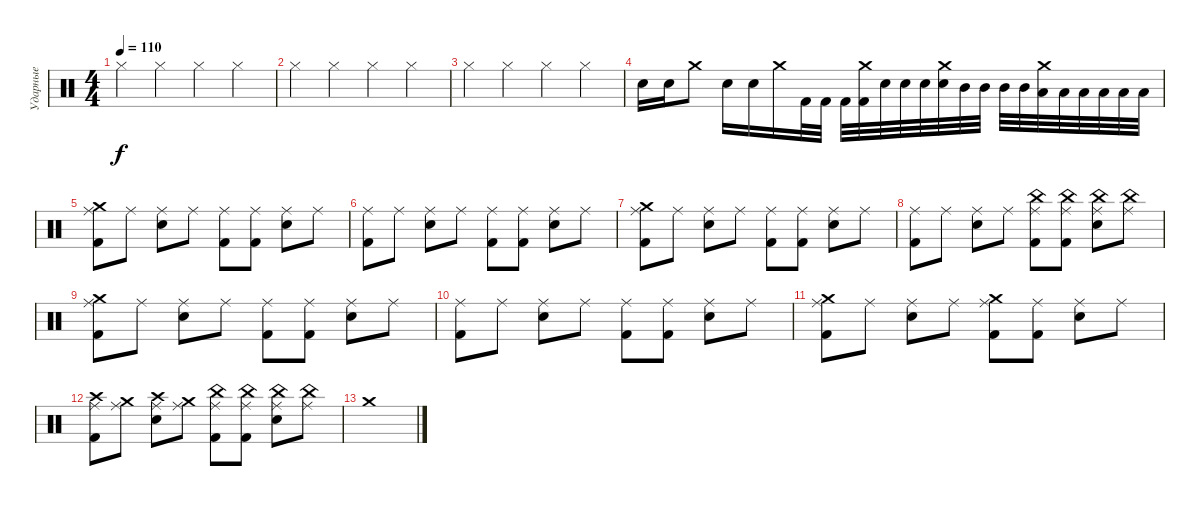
\track ("Ударные" "Ударные") {instrument percussion}
\staff {score}
\articulation defaults
\ts (4 4)
\tempo 110
\clef neutral
\ks c "Hi-Hat (closed)".4{dy f} "Hi-Hat (closed)".4 "Hi-Hat (closed)".4 "Hi-Hat (closed)".4
|
"Hi-Hat (closed)".4 "Hi-Hat (closed)".4 "Hi-Hat (closed)".4 "Hi-Hat (closed)".4 |
"Hi-Hat (closed)".4 "Hi-Hat (closed)".4 "Hi-Hat (closed)".4 "Hi-Hat (closed)".4 |
"Electric Snare (hit)".16 "Electric Snare (hit)".16 "Crash medium (hit)".8 "Electric Snare (hit)".16 "Electric Snare (hit)".16 "Crash medium (hit)".16 "Kick (hit) 2".32 "Kick (hit) 2".32 "Kick (hit) 2".32 ("Crash medium (hit)" "Kick (hit) 2").32 "Electric Snare (hit)".32 "Electric Snare (hit)".32 "Electric Snare (hit)".32 ("Crash medium (hit)" "Electric Snare (hit)").32 "Mid Tom (hit)".32 "Mid Tom (hit)".32 "Mid Tom (hit)".32 "Mid Tom (hit)".32 ("Crash medium (hit)" "Low Tom (hit)").32 "Low Tom (hit)".32 "Low Tom (hit)".32 "Low Tom (hit)".32 "Low Floor Tom (hit)".32 "Low Floor Tom (hit)".32 |
("Ride (middle)" "Crash medium (hit)" "Kick (hit) 2").8 "Ride (middle)".8 ("Ride (middle)" "Electric Snare (hit)").8 "Ride (middle)".8 ("Ride (middle)" "Kick (hit) 2").8 ("Ride (middle)" "Kick (hit) 2").8 ("Ride (middle)" "Electric Snare (hit)").8 "Ride (middle)".8 |
("Ride (middle)" "Kick (hit) 2").8 "Ride (middle)".8 ("Ride (middle)" "Electric Snare (hit)").8 "Ride (middle)".8 ("Ride (middle)" "Kick (hit) 2").8 ("Ride (middle)" "Kick (hit) 2").8 ("Ride (middle)" "Electric Snare (hit)").8 "Ride (middle)".8 |
("Ride (middle)" "Crash medium (hit)" "Kick (hit) 2").8 "Ride (middle)".8 ("Ride (middle)" "Electric Snare (hit)").8 "Ride (middle)".8 ("Ride (middle)" "Kick (hit) 2").8 ("Ride (middle)" "Kick (hit) 2").8 ("Ride (middle)" "Electric Snare (hit)").8 "Ride (middle)".8 |
("Ride (middle)" "Kick (hit) 2").8 "Ride (middle)".8 ("Ride (middle)" "Electric Snare (hit)").8 "Ride (middle)".8 ("Ride (middle)" "China (hit)" "Kick (hit) 2").8 ("Ride (middle)" "China (hit)" "Kick (hit) 2").8 ("Ride (middle)" "China (hit)" "Electric Snare (hit)").8 ("Ride (middle)" "China (hit)").8 |
("Ride (middle)" "Crash medium (hit)" "Kick (hit) 2").8 "Ride (middle)".8 ("Ride (middle)" "Electric Snare (hit)").8 "Ride (middle)".8 ("Ride (middle)" "Kick (hit) 2").8 ("Ride (middle)" "Kick (hit) 2").8 ("Ride (middle)" "Electric Snare (hit)").8 "Ride (middle)".8 |
("Ride (middle)" "Kick (hit) 2").8 "Ride (middle)".8 ("Ride (middle)" "Electric Snare (hit)").8 "Ride (middle)".8 ("Ride (middle)" "Kick (hit) 2").8 ("Ride (middle)" "Kick (hit) 2").8 ("Ride (middle)" "Electric Snare (hit)").8 "Ride (middle)".8 |
("Ride (middle)" "Crash medium (hit)" "Kick (hit) 2").8 "Ride (middle)".8 ("Ride (middle)" "Electric Snare (hit)").8 "Ride (middle)".8 ("Ride (middle)" "Crash medium (hit)" "Kick (hit) 2").8 ("Ride (middle)" "Kick (hit) 2").8 ("Ride (middle)" "Electric Snare (hit)").8 "Ride (middle)".8 |
("Ride (middle)" "Crash high (hit)" "Kick (hit) 2").8 ("Ride (middle)" "Crash medium (hit)").8 ("Ride (middle)" "Crash high (hit)" "Electric Snare (hit)").8 ("Ride (middle)" "Crash medium (hit)").8 ("Ride (middle)" "China (hit)" "Kick (hit) 2").8 ("Ride (middle)" "China (hit)" "Kick (hit) 2").8 ("Ride (middle)" "China (hit)" "Electric Snare (hit)").8 ("Ride (middle)" "China (hit)").8 |
"Crash medium (hit)".1
